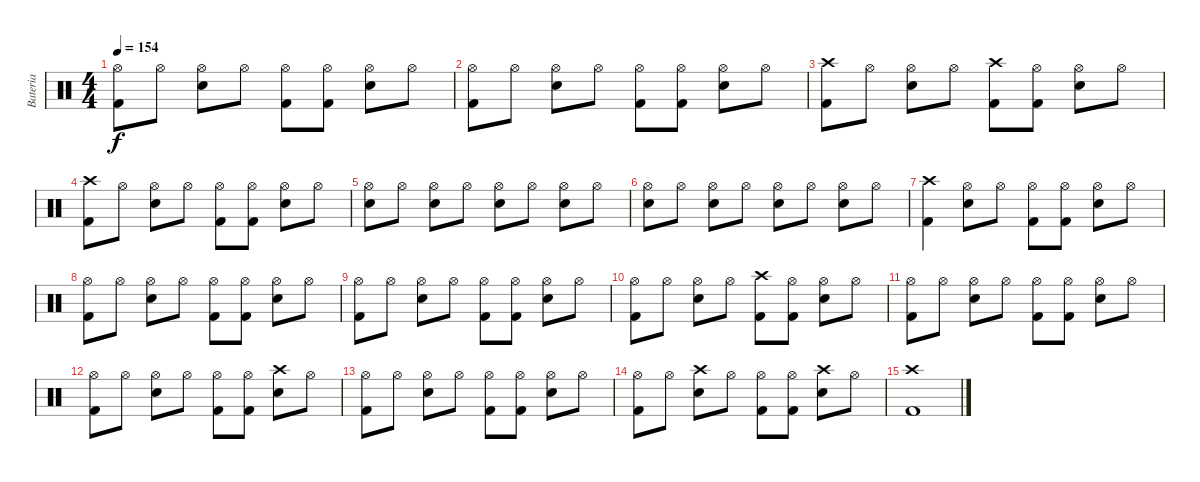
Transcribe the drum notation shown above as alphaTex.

\track ("Bateria" "Bateria") {instrument percussion}
\staff {score}
\articulation defaults
\ts (4 4)
\tempo 154
\clef neutral
\ks c
("Kick (hit) 2" "Hi-Hat (open)").8{dy f} "Hi-Hat (open)".8 ("Electric Snare (hit)" "Hi-Hat (open)").8 "Hi-Hat (open)".8 ("Kick (hit) 2" "Hi-Hat (open)").8 ("Kick (hit) 2" "Hi-Hat (open)").8 ("Electric Snare (hit)" "Hi-Hat (open)").8 "Hi-Hat (open)".8 |
("Kick (hit) 2" "Hi-Hat (open)").8 "Hi-Hat (open)".8 ("Electric Snare (hit)" "Hi-Hat (open)").8 "Hi-Hat (open)".8 ("Kick (hit) 2" "Hi-Hat (open)").8 ("Kick (hit) 2" "Hi-Hat (open)").8 ("Electric Snare (hit)" "Hi-Hat (open)").8 "Hi-Hat (open)".8 |
("Kick (hit) 2" "Crash high (hit)").8 "Hi-Hat (open)".8 ("Electric Snare (hit)" "Hi-Hat (open)").8 "Hi-Hat (open)".8 ("Kick (hit) 2" "Crash high (hit)").8 ("Kick (hit) 2" "Hi-Hat (open)").8 ("Electric Snare (hit)" "Hi-Hat (open)").8 "Hi-Hat (open)".8 |
("Kick (hit) 2" "Crash high (hit)").8 "Hi-Hat (open)".8 ("Electric Snare (hit)" "Hi-Hat (open)").8 "Hi-Hat (open)".8 ("Kick (hit) 2" "Hi-Hat (open)").8 ("Kick (hit) 2" "Hi-Hat (open)").8 ("Electric Snare (hit)" "Hi-Hat (open)").8 "Hi-Hat (open)".8 |
("Electric Snare (hit)" "Hi-Hat (open)").8 "Hi-Hat (open)".8 ("Electric Snare (hit)" "Hi-Hat (open)").8 "Hi-Hat (open)".8 ("Electric Snare (hit)" "Hi-Hat (open)").8 "Hi-Hat (open)".8 ("Electric Snare (hit)" "Hi-Hat (open)").8 "Hi-Hat (open)".8 |
("Electric Snare (hit)" "Hi-Hat (open)").8 "Hi-Hat (open)".8 ("Electric Snare (hit)" "Hi-Hat (open)").8 "Hi-Hat (open)".8 ("Electric Snare (hit)" "Hi-Hat (open)").8 "Hi-Hat (open)".8 ("Electric Snare (hit)" "Hi-Hat (open)").8 "Hi-Hat (open)".8 |
("Kick (hit) 2" "Crash high (hit)").4 ("Electric Snare (hit)" "Hi-Hat (open)").8 "Hi-Hat (open)".8 ("Kick (hit) 2" "Hi-Hat (open)").8 ("Kick (hit) 2" "Hi-Hat (open)").8 ("Electric Snare (hit)" "Hi-Hat (open)").8 "Hi-Hat (open)".8 |
("Kick (hit) 2" "Hi-Hat (open)").8 "Hi-Hat (open)".8 ("Electric Snare (hit)" "Hi-Hat (open)").8 "Hi-Hat (open)".8 ("Kick (hit) 2" "Hi-Hat (open)").8 ("Kick (hit) 2" "Hi-Hat (open)").8 ("Electric Snare (hit)" "Hi-Hat (open)").8 "Hi-Hat (open)".8 |
("Kick (hit) 2" "Hi-Hat (open)").8 "Hi-Hat (open)".8 ("Electric Snare (hit)" "Hi-Hat (open)").8 "Hi-Hat (open)".8 ("Kick (hit) 2" "Hi-Hat (open)").8 ("Kick (hit) 2" "Hi-Hat (open)").8 ("Electric Snare (hit)" "Hi-Hat (open)").8 "Hi-Hat (open)".8 |
("Kick (hit) 2" "Hi-Hat (open)").8 "Hi-Hat (open)".8 ("Electric Snare (hit)" "Hi-Hat (open)").8 "Hi-Hat (open)".8 ("Kick (hit) 2" "Crash high (hit)").8 ("Kick (hit) 2" "Hi-Hat (open)").8 ("Electric Snare (hit)" "Hi-Hat (open)").8 "Hi-Hat (open)".8 |
("Kick (hit) 2" "Hi-Hat (open)").8 "Hi-Hat (open)".8 ("Electric Snare (hit)" "Hi-Hat (open)").8 "Hi-Hat (open)".8 ("Kick (hit) 2" "Hi-Hat (open)").8 ("Kick (hit) 2" "Hi-Hat (open)").8 ("Electric Snare (hit)" "Hi-Hat (open)").8 "Hi-Hat (open)".8 |
("Kick (hit) 2" "Hi-Hat (open)").8 "Hi-Hat (open)".8 ("Electric Snare (hit)" "Hi-Hat (open)").8 "Hi-Hat (open)".8 ("Kick (hit) 2" "Hi-Hat (open)").8 ("Kick (hit) 2" "Hi-Hat (open)").8 ("Electric Snare (hit)" "Crash high (hit)").8 "Hi-Hat (open)".8 |
("Kick (hit) 2" "Hi-Hat (open)").8 "Hi-Hat (open)".8 ("Electric Snare (hit)" "Hi-Hat (open)").8 "Hi-Hat (open)".8 ("Kick (hit) 2" "Hi-Hat (open)").8 ("Kick (hit) 2" "Hi-Hat (open)").8 ("Electric Snare (hit)" "Hi-Hat (open)").8 "Hi-Hat (open)".8 |
("Kick (hit) 2" "Hi-Hat (open)").8 "Hi-Hat (open)".8 ("Electric Snare (hit)" "Crash high (hit)").8 "Hi-Hat (open)".8 ("Kick (hit) 2" "Hi-Hat (open)").8 ("Kick (hit) 2" "Hi-Hat (open)").8 ("Electric Snare (hit)" "Crash high (hit)").8 "Hi-Hat (open)".8 |
("Kick (hit) 2" "Crash high (hit)").1
